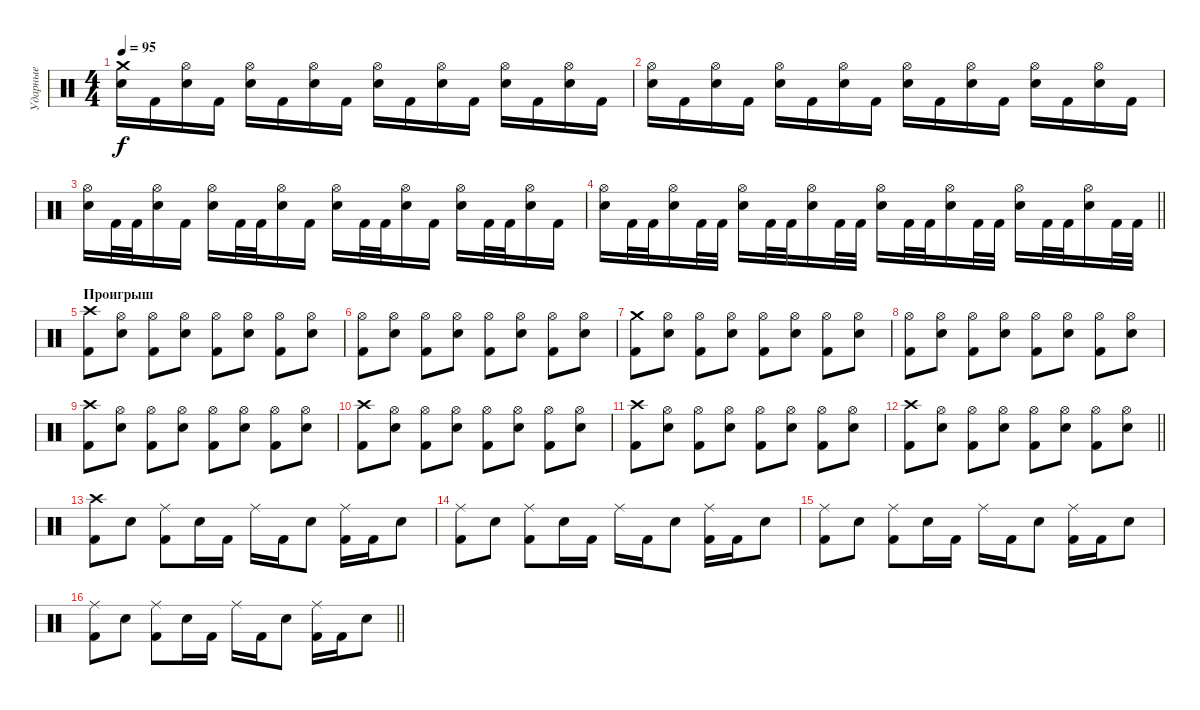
\track ("Ударные" "Ударные") {instrument percussion}
\staff {score}
\articulation defaults
\ts (4 4)
\tempo 95
\clef neutral
\ks c
("Electric Snare (hit)" "Crash medium (hit)").16{dy f} "Kick (hit) 2".16 ("Electric Snare (hit)" "Hi-Hat (open)").16 "Kick (hit) 2".16 ("Electric Snare (hit)" "Hi-Hat (open)").16 "Kick (hit) 2".16 ("Electric Snare (hit)" "Hi-Hat (open)").16 "Kick (hit) 2".16 ("Electric Snare (hit)" "Hi-Hat (open)").16 "Kick (hit) 2".16 ("Electric Snare (hit)" "Hi-Hat (open)").16 "Kick (hit) 2".16 ("Electric Snare (hit)" "Hi-Hat (open)").16 "Kick (hit) 2".16 ("Electric Snare (hit)" "Hi-Hat (open)").16 "Kick (hit) 2".16 |
("Electric Snare (hit)" "Hi-Hat (open)").16 "Kick (hit) 2".16 ("Electric Snare (hit)" "Hi-Hat (open)").16 "Kick (hit) 2".16 ("Electric Snare (hit)" "Hi-Hat (open)").16 "Kick (hit) 2".16 ("Electric Snare (hit)" "Hi-Hat (open)").16 "Kick (hit) 2".16 ("Electric Snare (hit)" "Hi-Hat (open)").16 "Kick (hit) 2".16 ("Electric Snare (hit)" "Hi-Hat (open)").16 "Kick (hit) 2".16 ("Electric Snare (hit)" "Hi-Hat (open)").16 "Kick (hit) 2".16 ("Electric Snare (hit)" "Hi-Hat (open)").16 "Kick (hit) 2".16 |
("Electric Snare (hit)" "Hi-Hat (open)").16 "Kick (hit) 2".32 "Kick (hit) 2".32 ("Electric Snare (hit)" "Hi-Hat (open)").16 "Kick (hit) 2".16 ("Electric Snare (hit)" "Hi-Hat (open)").16 "Kick (hit) 2".32 "Kick (hit) 2".32 ("Electric Snare (hit)" "Hi-Hat (open)").16 "Kick (hit) 2".16 ("Electric Snare (hit)" "Hi-Hat (open)").16 "Kick (hit) 2".32 "Kick (hit) 2".32 ("Electric Snare (hit)" "Hi-Hat (open)").16 "Kick (hit) 2".16 ("Electric Snare (hit)" "Hi-Hat (open)").16 "Kick (hit) 2".32 "Kick (hit) 2".32 ("Electric Snare (hit)" "Hi-Hat (open)").16 "Kick (hit) 2".16 |
\barLineRight lightlight
("Electric Snare (hit)" "Hi-Hat (open)").16 "Kick (hit) 2".32 "Kick (hit) 2".32 ("Electric Snare (hit)" "Hi-Hat (open)").16 "Kick (hit) 2".32 "Kick (hit) 2".32 ("Electric Snare (hit)" "Hi-Hat (open)").16 "Kick (hit) 2".32 "Kick (hit) 2".32 ("Electric Snare (hit)" "Hi-Hat (open)").16 "Kick (hit) 2".32 "Kick (hit) 2".32 ("Electric Snare (hit)" "Hi-Hat (open)").16 "Kick (hit) 2".32 "Kick (hit) 2".32 ("Electric Snare (hit)" "Hi-Hat (open)").16 "Kick (hit) 2".32 "Kick (hit) 2".32 ("Electric Snare (hit)" "Hi-Hat (open)").16 "Kick (hit) 2".32 "Kick (hit) 2".32 ("Electric Snare (hit)" "Hi-Hat (open)").16 "Kick (hit) 2".32 "Kick (hit) 2".32 |
\section ("" "Проигрыш")
("Kick (hit) 2" "Crash high (hit)").8 ("Electric Snare (hit)" "Hi-Hat (open)").8 ("Kick (hit) 2" "Hi-Hat (open)").8 ("Electric Snare (hit)" "Hi-Hat (open)").8 ("Kick (hit) 2" "Hi-Hat (open)").8 ("Electric Snare (hit)" "Hi-Hat (open)").8 ("Kick (hit) 2" "Hi-Hat (open)").8 ("Electric Snare (hit)" "Hi-Hat (open)").8 |
("Kick (hit) 2" "Hi-Hat (open)").8 ("Electric Snare (hit)" "Hi-Hat (open)").8 ("Kick (hit) 2" "Hi-Hat (open)").8 ("Electric Snare (hit)" "Hi-Hat (open)").8 ("Kick (hit) 2" "Hi-Hat (open)").8 ("Electric Snare (hit)" "Hi-Hat (open)").8 ("Kick (hit) 2" "Hi-Hat (open)").8 ("Electric Snare (hit)" "Hi-Hat (open)").8 |
("Kick (hit) 2" "Crash medium (hit)").8 ("Electric Snare (hit)" "Hi-Hat (open)").8 ("Kick (hit) 2" "Hi-Hat (open)").8 ("Electric Snare (hit)" "Hi-Hat (open)").8 ("Kick (hit) 2" "Hi-Hat (open)").8 ("Electric Snare (hit)" "Hi-Hat (open)").8 ("Kick (hit) 2" "Hi-Hat (open)").8 ("Electric Snare (hit)" "Hi-Hat (open)").8 |
("Kick (hit) 2" "Hi-Hat (open)").8 ("Electric Snare (hit)" "Hi-Hat (open)").8 ("Kick (hit) 2" "Hi-Hat (open)").8 ("Electric Snare (hit)" "Hi-Hat (open)").8 ("Kick (hit) 2" "Hi-Hat (open)").8 ("Electric Snare (hit)" "Hi-Hat (open)").8 ("Kick (hit) 2" "Hi-Hat (open)").8 ("Electric Snare (hit)" "Hi-Hat (open)").8 |
("Kick (hit) 2" "Crash high (hit)").8 ("Electric Snare (hit)" "Hi-Hat (open)").8 ("Kick (hit) 2" "Hi-Hat (open)").8 ("Electric Snare (hit)" "Hi-Hat (open)").8 ("Kick (hit) 2" "Hi-Hat (open)").8 ("Electric Snare (hit)" "Hi-Hat (open)").8 ("Kick (hit) 2" "Hi-Hat (open)").8 ("Electric Snare (hit)" "Hi-Hat (open)").8 |
("Kick (hit) 2" "Crash high (hit)").8 ("Electric Snare (hit)" "Hi-Hat (open)").8 ("Kick (hit) 2" "Hi-Hat (open)").8 ("Electric Snare (hit)" "Hi-Hat (open)").8 ("Kick (hit) 2" "Hi-Hat (open)").8 ("Electric Snare (hit)" "Hi-Hat (open)").8 ("Kick (hit) 2" "Hi-Hat (open)").8 ("Electric Snare (hit)" "Hi-Hat (open)").8 |
("Kick (hit) 2" "Crash high (hit)").8 ("Electric Snare (hit)" "Hi-Hat (open)").8 ("Kick (hit) 2" "Hi-Hat (open)").8 ("Electric Snare (hit)" "Hi-Hat (open)").8 ("Kick (hit) 2" "Hi-Hat (open)").8 ("Electric Snare (hit)" "Hi-Hat (open)").8 ("Kick (hit) 2" "Hi-Hat (open)").8 ("Electric Snare (hit)" "Hi-Hat (open)").8 |
\barLineRight lightlight
("Kick (hit) 2" "Crash high (hit)").8 ("Electric Snare (hit)" "Hi-Hat (open)").8 ("Kick (hit) 2" "Hi-Hat (open)").8 ("Electric Snare (hit)" "Hi-Hat (open)").8 ("Kick (hit) 2" "Hi-Hat (open)").8 ("Electric Snare (hit)" "Hi-Hat (open)").8 ("Kick (hit) 2" "Hi-Hat (open)").8 ("Electric Snare (hit)" "Hi-Hat (open)").8 |
("Kick (hit) 2" "Crash high (hit)").8 "Electric Snare (hit)".8 ("Kick (hit) 2" "Ride (middle)").8 "Electric Snare (hit)".16 "Kick (hit) 2".16 "Ride (middle)".16 "Kick (hit) 2".16 "Electric Snare (hit)".8 ("Kick (hit) 2" "Ride (middle)").16 "Kick (hit) 2".16 "Electric Snare (hit)".8 |
("Kick (hit) 2" "Ride (middle)").8 "Electric Snare (hit)".8 ("Kick (hit) 2" "Ride (middle)").8 "Electric Snare (hit)".16 "Kick (hit) 2".16 "Ride (middle)".16 "Kick (hit) 2".16 "Electric Snare (hit)".8 ("Kick (hit) 2" "Ride (middle)").16 "Kick (hit) 2".16 "Electric Snare (hit)".8 |
("Kick (hit) 2" "Ride (middle)").8 "Electric Snare (hit)".8 ("Kick (hit) 2" "Ride (middle)").8 "Electric Snare (hit)".16 "Kick (hit) 2".16 "Ride (middle)".16 "Kick (hit) 2".16 "Electric Snare (hit)".8 ("Kick (hit) 2" "Ride (middle)").16 "Kick (hit) 2".16 "Electric Snare (hit)".8 |
\barLineRight lightlight
("Kick (hit) 2" "Ride (middle)").8 "Electric Snare (hit)".8 ("Kick (hit) 2" "Ride (middle)").8 "Electric Snare (hit)".16 "Kick (hit) 2".16 "Ride (middle)".16 "Kick (hit) 2".16 "Electric Snare (hit)".8 ("Kick (hit) 2" "Ride (middle)").16 "Kick (hit) 2".16 "Electric Snare (hit)".8
